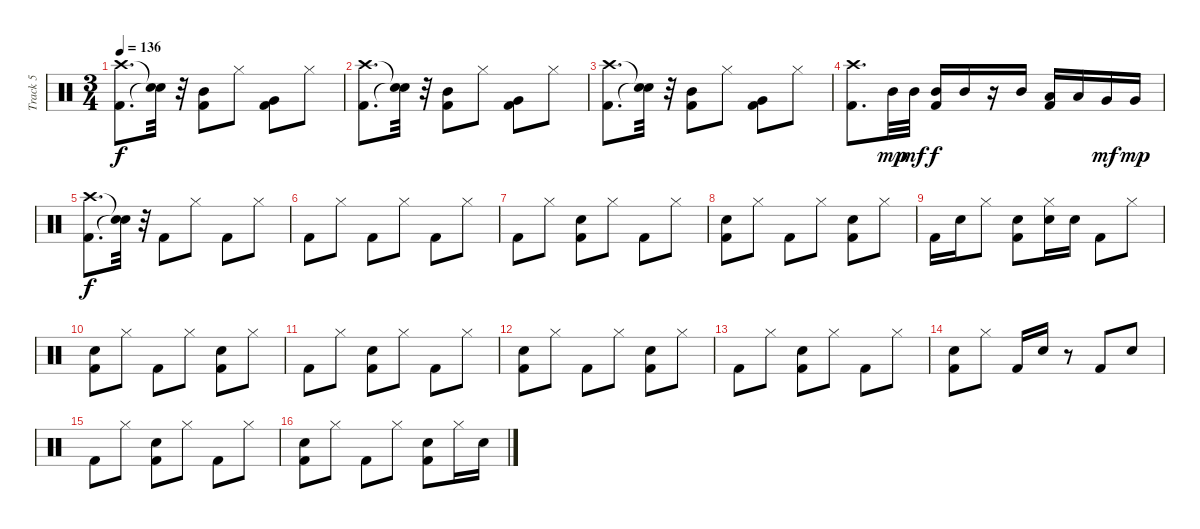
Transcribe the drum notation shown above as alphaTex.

\track ("Track 5" "Track 5") {instrument percussion}
\staff {score}
\articulation defaults
\ts (3 4)
\tempo 136
\clef neutral
\ks c
("Kick (hit) 2" "Crash high (hit)").8{d dy f} ("Snare (hit)"{t} "Snare (hit)"{t}).32 r.32 ("Kick (hit) 2" "Mid Tom (hit)").8 "Hi-Hat (closed)".8 ("Kick (hit) 2" "Very Low Tom (hit)").8 "Hi-Hat (closed)".8 |
("Kick (hit) 2" "Crash high (hit)").8{d} ("Snare (hit)"{t} "Snare (hit)"{t}).32 r.32 ("Kick (hit) 2" "Mid Tom (hit)").8 "Hi-Hat (closed)".8 ("Kick (hit) 2" "Very Low Tom (hit)").8 "Hi-Hat (closed)".8 |
("Kick (hit) 2" "Crash high (hit)").8{d} ("Snare (hit)"{t} "Snare (hit)"{t}).32 r.32 ("Kick (hit) 2" "Mid Tom (hit)").8 "Hi-Hat (closed)".8 ("Kick (hit) 2" "Very Low Tom (hit)").8 "Hi-Hat (closed)".8 |
("Kick (hit) 2" "Crash high (hit)").8{d} "Mid Tom (hit)".32{dy mp} "Mid Tom (hit)".32{dy mf} ("Kick (hit) 2" "Mid Tom (hit)").16{dy f} "Mid Tom (hit)".16 r.16 "Mid Tom (hit)".16 ("Kick (hit) 2" "Low Tom (hit)").16 "Low Tom (hit)".16 "Very Low Tom (hit)".16{dy mf} "Very Low Tom (hit)".16{dy mp} |
("Kick (hit) 2" "Crash high (hit)").8{d dy f} ("Snare (hit)"{t} "Snare (hit)"{t}).32 r.32 "Kick (hit) 2".8 "Hi-Hat (closed)".8 "Kick (hit) 2".8 "Hi-Hat (closed)".8 |
"Kick (hit) 2".8 "Hi-Hat (closed)".8 "Kick (hit) 2".8 "Hi-Hat (closed)".8 "Kick (hit) 2".8 "Hi-Hat (closed)".8 |
"Kick (hit) 2".8 "Hi-Hat (closed)".8 ("Kick (hit) 2" "Hand Clap (hit)").8 "Hi-Hat (closed)".8 "Kick (hit) 2".8 "Hi-Hat (closed)".8 |
("Kick (hit) 2" "Hand Clap (hit)").8 "Hi-Hat (closed)".8 "Kick (hit) 2".8 "Hi-Hat (closed)".8 ("Kick (hit) 2" "Hand Clap (hit)").8 "Hi-Hat (closed)".8 |
"Kick (hit) 2".16 "Hand Clap (hit)".16 "Hi-Hat (closed)".8 ("Kick (hit) 2" "Hand Clap (hit)").8 ("Hand Clap (hit)" "Hi-Hat (closed)").16 "Hand Clap (hit)".16 "Kick (hit) 2".8 "Hi-Hat (closed)".8 |
("Kick (hit) 2" "Hand Clap (hit)").8 "Hi-Hat (closed)".8 "Kick (hit) 2".8 "Hi-Hat (closed)".8 ("Kick (hit) 2" "Hand Clap (hit)").8 "Hi-Hat (closed)".8 |
"Kick (hit) 2".8 "Hi-Hat (closed)".8 ("Kick (hit) 2" "Hand Clap (hit)").8 "Hi-Hat (closed)".8 "Kick (hit) 2".8 "Hi-Hat (closed)".8 |
("Kick (hit) 2" "Hand Clap (hit)").8 "Hi-Hat (closed)".8 "Kick (hit) 2".8 "Hi-Hat (closed)".8 ("Kick (hit) 2" "Hand Clap (hit)").8 "Hi-Hat (closed)".8 |
"Kick (hit) 2".8 "Hi-Hat (closed)".8 ("Kick (hit) 2" "Hand Clap (hit)").8 "Hi-Hat (closed)".8 "Kick (hit) 2".8 "Hi-Hat (closed)".8 |
("Kick (hit) 2" "Hand Clap (hit)").8 "Hi-Hat (closed)".8 "Kick (hit) 2".16 "Hand Clap (hit)".16 r.8 "Kick (hit) 2".8 "Hand Clap (hit)".8 |
"Kick (hit) 2".8 "Hi-Hat (closed)".8 ("Kick (hit) 2" "Hand Clap (hit)").8 "Hi-Hat (closed)".8 "Kick (hit) 2".8 "Hi-Hat (closed)".8 |
("Kick (hit) 2" "Hand Clap (hit)").8 "Hi-Hat (closed)".8 "Kick (hit) 2".8 "Hi-Hat (closed)".8 ("Kick (hit) 2" "Hand Clap (hit)").8 "Hi-Hat (closed)".16 "Hand Clap (hit)".16
